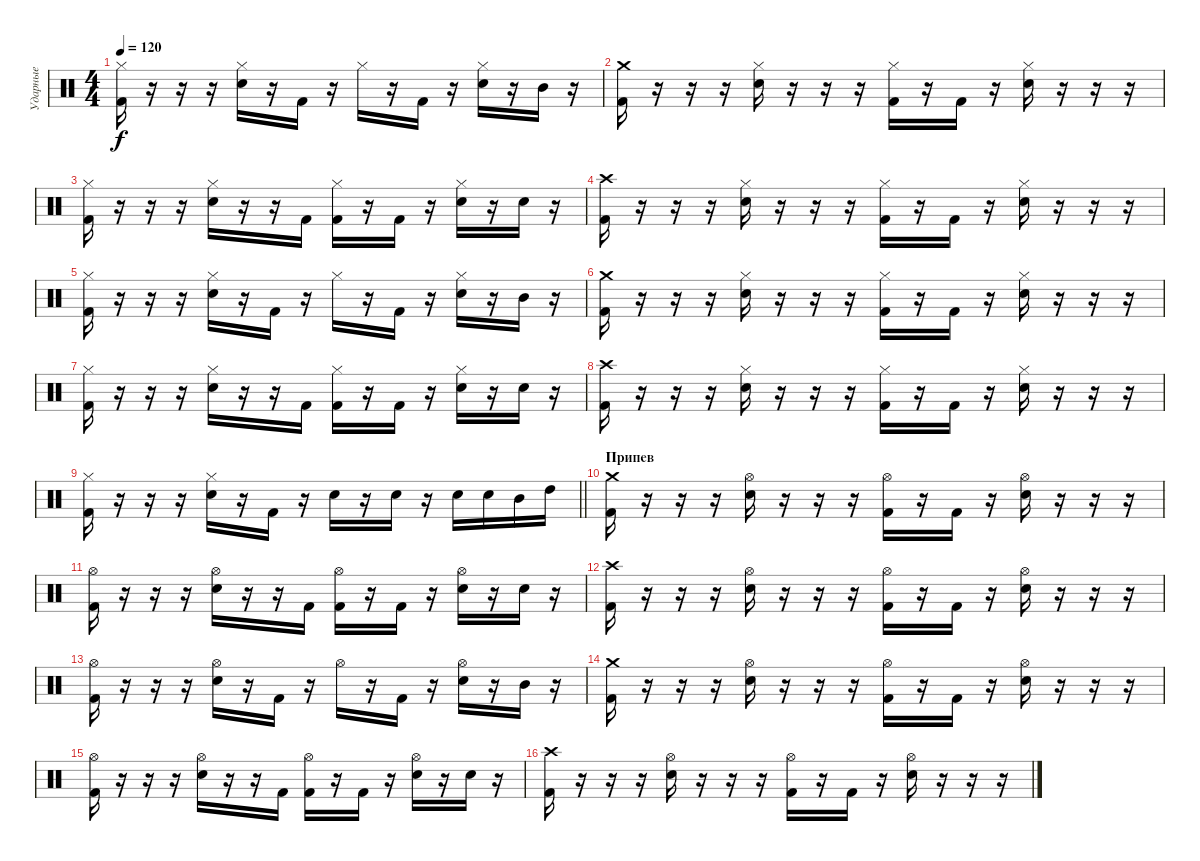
\track ("Ударные" "Ударные") {instrument percussion}
\staff {score}
\articulation defaults
\ts (4 4)
\tempo 120
\clef neutral
\ks c
("Kick (hit) 2" "Hi-Hat (closed)").16{dy f} r.16 r.16 r.16 ("Hi-Hat (closed)" "Electric Snare (hit)").16 r.16 "Kick (hit) 2".16 r.16 "Hi-Hat (closed)".16 r.16 "Kick (hit) 2".16 r.16 ("Hi-Hat (closed)" "Electric Snare (hit)").16 r.16 "Mid Tom (hit)".16 r.16 |
("Kick (hit) 2" "Crash medium (hit)").16 r.16 r.16 r.16 ("Hi-Hat (closed)" "Electric Snare (hit)").16 r.16 r.16 r.16 ("Hi-Hat (closed)" "Kick (hit) 2").16 r.16 "Kick (hit) 2".16 r.16 ("Hi-Hat (closed)" "Electric Snare (hit)").16 r.16 r.16 r.16 |
("Kick (hit) 2" "Hi-Hat (closed)").16 r.16 r.16 r.16 ("Hi-Hat (closed)" "Electric Snare (hit)").16 r.16 r.16 "Kick (hit) 2".16 ("Hi-Hat (closed)" "Kick (hit) 2").16 r.16 "Kick (hit) 2".16 r.16 ("Hi-Hat (closed)" "Electric Snare (hit)").16 r.16 "Electric Snare (hit)".16 r.16 |
("Kick (hit) 2" "Crash high (hit)").16 r.16 r.16 r.16 ("Hi-Hat (closed)" "Electric Snare (hit)").16 r.16 r.16 r.16 ("Hi-Hat (closed)" "Kick (hit) 2").16 r.16 "Kick (hit) 2".16 r.16 ("Hi-Hat (closed)" "Electric Snare (hit)").16 r.16 r.16 r.16 |
("Kick (hit) 2" "Hi-Hat (closed)").16 r.16 r.16 r.16 ("Hi-Hat (closed)" "Electric Snare (hit)").16 r.16 "Kick (hit) 2".16 r.16 "Hi-Hat (closed)".16 r.16 "Kick (hit) 2".16 r.16 ("Hi-Hat (closed)" "Electric Snare (hit)").16 r.16 "Mid Tom (hit)".16 r.16 |
("Kick (hit) 2" "Crash medium (hit)").16 r.16 r.16 r.16 ("Hi-Hat (closed)" "Electric Snare (hit)").16 r.16 r.16 r.16 ("Hi-Hat (closed)" "Kick (hit) 2").16 r.16 "Kick (hit) 2".16 r.16 ("Hi-Hat (closed)" "Electric Snare (hit)").16 r.16 r.16 r.16 |
("Kick (hit) 2" "Hi-Hat (closed)").16 r.16 r.16 r.16 ("Hi-Hat (closed)" "Electric Snare (hit)").16 r.16 r.16 "Kick (hit) 2".16 ("Hi-Hat (closed)" "Kick (hit) 2").16 r.16 "Kick (hit) 2".16 r.16 ("Hi-Hat (closed)" "Electric Snare (hit)").16 r.16 "Electric Snare (hit)".16 r.16 |
("Kick (hit) 2" "Crash high (hit)").16 r.16 r.16 r.16 ("Hi-Hat (closed)" "Electric Snare (hit)").16 r.16 r.16 r.16 ("Hi-Hat (closed)" "Kick (hit) 2").16 r.16 "Kick (hit) 2".16 r.16 ("Hi-Hat (closed)" "Electric Snare (hit)").16 r.16 r.16 r.16 |
\barLineRight lightlight
("Kick (hit) 2" "Hi-Hat (closed)").16 r.16 r.16 r.16 ("Hi-Hat (closed)" "Electric Snare (hit)").16 r.16 "Kick (hit) 2".16 r.16 "Electric Snare (hit)".16 r.16 "Electric Snare (hit)".16 r.16 "Electric Snare (hit)".16 "Electric Snare (hit)".16 "Mid Tom (hit)".16 "High Tom (hit)".16 |
\section ("" "Припев")
("Kick (hit) 2" "Crash medium (hit)").16 r.16 r.16 r.16 ("Hi-Hat (open)" "Electric Snare (hit)").16 r.16 r.16 r.16 ("Hi-Hat (open)" "Kick (hit) 2").16 r.16 "Kick (hit) 2".16 r.16 ("Hi-Hat (open)" "Electric Snare (hit)").16 r.16 r.16 r.16 |
("Kick (hit) 2" "Hi-Hat (open)").16 r.16 r.16 r.16 ("Hi-Hat (open)" "Electric Snare (hit)").16 r.16 r.16 "Kick (hit) 2".16 ("Hi-Hat (open)" "Kick (hit) 2").16 r.16 "Kick (hit) 2".16 r.16 ("Hi-Hat (open)" "Electric Snare (hit)").16 r.16 "Electric Snare (hit)".16 r.16 |
("Kick (hit) 2" "Crash high (hit)").16 r.16 r.16 r.16 ("Hi-Hat (open)" "Electric Snare (hit)").16 r.16 r.16 r.16 ("Hi-Hat (open)" "Kick (hit) 2").16 r.16 "Kick (hit) 2".16 r.16 ("Hi-Hat (open)" "Electric Snare (hit)").16 r.16 r.16 r.16 |
("Kick (hit) 2" "Hi-Hat (open)").16 r.16 r.16 r.16 ("Hi-Hat (open)" "Electric Snare (hit)").16 r.16 "Kick (hit) 2".16 r.16 "Hi-Hat (open)".16 r.16 "Kick (hit) 2".16 r.16 ("Hi-Hat (open)" "Electric Snare (hit)").16 r.16 "Mid Tom (hit)".16 r.16 |
("Kick (hit) 2" "Crash medium (hit)").16 r.16 r.16 r.16 ("Hi-Hat (open)" "Electric Snare (hit)").16 r.16 r.16 r.16 ("Hi-Hat (open)" "Kick (hit) 2").16 r.16 "Kick (hit) 2".16 r.16 ("Hi-Hat (open)" "Electric Snare (hit)").16 r.16 r.16 r.16 |
("Kick (hit) 2" "Hi-Hat (open)").16 r.16 r.16 r.16 ("Hi-Hat (open)" "Electric Snare (hit)").16 r.16 r.16 "Kick (hit) 2".16 ("Hi-Hat (open)" "Kick (hit) 2").16 r.16 "Kick (hit) 2".16 r.16 ("Hi-Hat (open)" "Electric Snare (hit)").16 r.16 "Electric Snare (hit)".16 r.16 |
("Kick (hit) 2" "Crash high (hit)").16 r.16 r.16 r.16 ("Hi-Hat (open)" "Electric Snare (hit)").16 r.16 r.16 r.16 ("Hi-Hat (open)" "Kick (hit) 2").16 r.16 "Kick (hit) 2".16 r.16 ("Hi-Hat (open)" "Electric Snare (hit)").16 r.16 r.16 r.16
